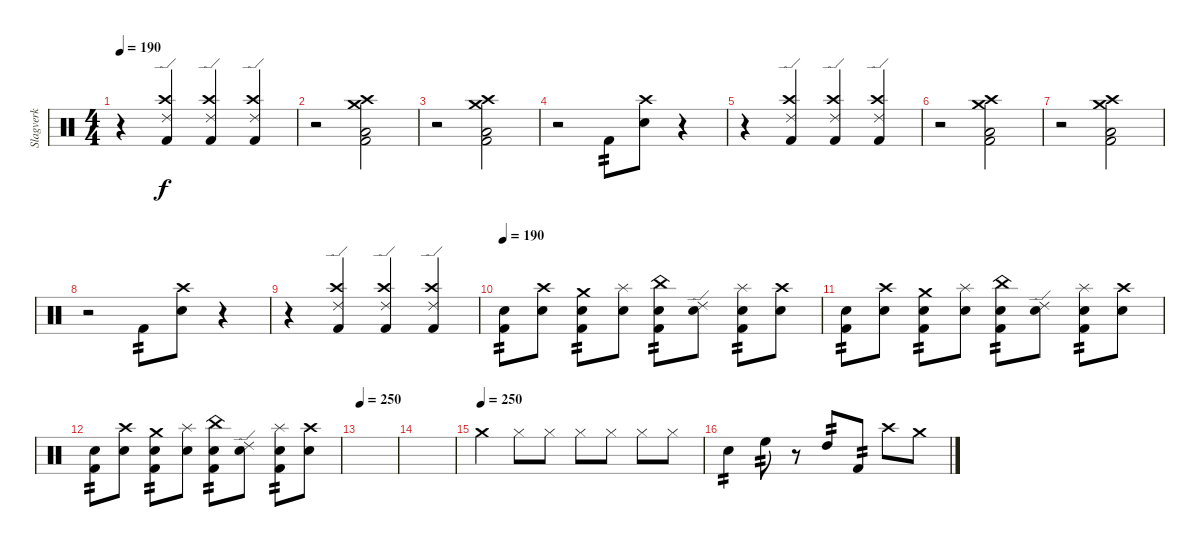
\track ("Slagverk" "Slagverk") {instrument percussion}
\staff {score}
\articulation defaults
\ts (4 4)
\tempo 190
\clef neutral
\ks c
r.4{dy f} ("Ride (edge) 2" "Crash high (hit)" "Kick (hit) 2").4 ("Ride (edge) 2" "Crash high (hit)" "Kick (hit) 2").4 ("Ride (edge) 2" "Crash high (hit)" "Kick (hit) 2").4 |
r.2 ("Crash medium (hit)" "Crash high (hit)" "Low Tom (hit)" "Kick (hit) 2").2 |
r.2 ("Crash medium (hit)" "Crash high (hit)" "Low Tom (hit)" "Kick (hit) 2").2 |
r.2 "Kick (hit) 2".8{tp 2} ("Crash high (hit)" "Electric Snare (hit)").8 r.4 |
r.4 ("Ride (edge) 2" "Crash high (hit)" "Kick (hit) 2").4 ("Ride (edge) 2" "Crash high (hit)" "Kick (hit) 2").4 ("Ride (edge) 2" "Crash high (hit)" "Kick (hit) 2").4 |
r.2 ("Crash medium (hit)" "Crash high (hit)" "Low Tom (hit)" "Kick (hit) 2").2 |
r.2 ("Crash medium (hit)" "Crash high (hit)" "Low Tom (hit)" "Kick (hit) 2").2 |
r.2 "Kick (hit) 2".8{tp 2} ("Crash high (hit)" "Electric Snare (hit)").8 r.4 |
r.4 ("Ride (edge) 2" "Crash high (hit)" "Kick (hit) 2").4 ("Ride (edge) 2" "Crash high (hit)" "Kick (hit) 2").4 ("Ride (edge) 2" "Crash high (hit)" "Kick (hit) 2").4 |
\tempo 175
\tempo 190
("Electric Snare (hit)" "Kick (hit) 2").8{tp 2} ("Crash high (hit)" "Electric Snare (hit)").8 ("Crash medium (hit)" "Electric Snare (hit)" "Kick (hit) 2").8{tp 2} ("Splash (hit)" "Electric Snare (hit)").8 ("China (hit)" "Electric Snare (hit)" "Kick (hit) 2").8{tp 2} ("Ride (edge) 2" "Electric Snare (hit)").8 ("Splash (hit)" "Electric Snare (hit)" "Kick (hit) 2").8{tp 2} ("Crash high (hit)" "Electric Snare (hit)").8 |
("Electric Snare (hit)" "Kick (hit) 2").8{tp 2} ("Crash high (hit)" "Electric Snare (hit)").8 ("Crash medium (hit)" "Electric Snare (hit)" "Kick (hit) 2").8{tp 2} ("Splash (hit)" "Electric Snare (hit)").8 ("China (hit)" "Electric Snare (hit)" "Kick (hit) 2").8{tp 2} ("Ride (edge) 2" "Electric Snare (hit)").8 ("Splash (hit)" "Electric Snare (hit)" "Kick (hit) 2").8{tp 2} ("Crash high (hit)" "Electric Snare (hit)").8 |
("Electric Snare (hit)" "Kick (hit) 2").8{tp 2} ("Crash high (hit)" "Electric Snare (hit)").8 ("Crash medium (hit)" "Electric Snare (hit)" "Kick (hit) 2").8{tp 2} ("Splash (hit)" "Electric Snare (hit)").8 ("China (hit)" "Electric Snare (hit)" "Kick (hit) 2").8{tp 2} ("Ride (edge) 2" "Electric Snare (hit)").8 ("Splash (hit)" "Electric Snare (hit)" "Kick (hit) 2").8{tp 2} ("Crash high (hit)" "Electric Snare (hit)").8 |
\tempo 250
|
|
\tempo (250)
"Crash medium (hit)".4 "Hi-Hat (closed)".8 "Hi-Hat (closed)".8 "Hi-Hat (closed)".8 "Hi-Hat (closed)".8 "Hi-Hat (closed)".8 "Hi-Hat (closed)".8 |
"Electric Snare (hit)".4{tp 2} "High Floor Tom (hit)".8{tp 2} r.8 "High Tom (hit)".8{tp 2} "Kick (hit) 2".8{tp 2} "Crash high (hit)".8 "Crash medium (hit)".8
